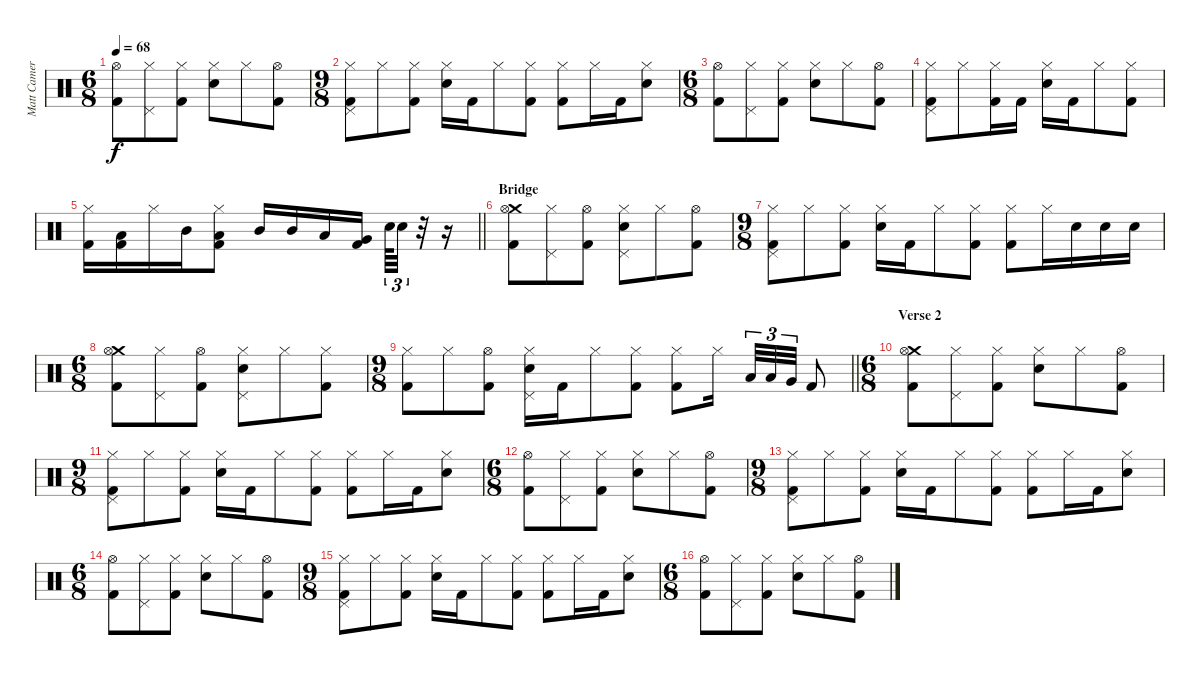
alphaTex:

\track ("Matt Cameron" "Matt Camer") {instrument percussion}
\staff {score}
\articulation defaults
\ts (6 8)
\tempo 68
\clef neutral
\ks c
("Hi-Hat (open)" "Kick (hit) 2").8{dy f} ("Pedal Hi-Hat (hit)" "Hi-Hat (closed)").8 ("Hi-Hat (closed)" "Kick (hit) 2").8 ("Hi-Hat (closed)" "Electric Snare (hit)").8 "Hi-Hat (closed)".8 ("Hi-Hat (open)" "Kick (hit) 2").8 |
\ts (9 8)
("Pedal Hi-Hat (hit)" "Hi-Hat (closed)" "Kick (hit) 2").8 "Hi-Hat (closed)".8 ("Hi-Hat (closed)" "Kick (hit) 2").8 ("Hi-Hat (closed)" "Electric Snare (hit)").16 "Kick (hit) 2".16 "Hi-Hat (closed)".8 ("Hi-Hat (closed)" "Kick (hit) 2").8 ("Hi-Hat (closed)" "Kick (hit) 2").8 "Hi-Hat (closed)".16 "Kick (hit) 2".16 ("Hi-Hat (closed)" "Electric Snare (hit)").8 |
\ts (6 8)
("Hi-Hat (open)" "Kick (hit) 2").8 ("Pedal Hi-Hat (hit)" "Hi-Hat (closed)").8 ("Hi-Hat (closed)" "Kick (hit) 2").8 ("Hi-Hat (closed)" "Electric Snare (hit)").8 "Hi-Hat (closed)".8 ("Hi-Hat (open)" "Kick (hit) 2").8 |
("Pedal Hi-Hat (hit)" "Hi-Hat (closed)" "Kick (hit) 2").8 "Hi-Hat (closed)".8 ("Hi-Hat (closed)" "Kick (hit) 2").16 "Kick (hit) 2".16 ("Hi-Hat (closed)" "Electric Snare (hit)").16 "Kick (hit) 2".16 "Hi-Hat (closed)".8 ("Hi-Hat (closed)" "Kick (hit) 2").8 |
\barLineRight lightlight
("Hi-Hat (closed)" "Kick (hit) 2").16 ("Low Tom (hit)" "Kick (hit) 2").16 "Hi-Hat (closed)".16 "Mid Tom (hit)".16 ("Hi-Hat (closed)" "Low Tom (hit)" "Kick (hit) 2").8 "Mid Tom (hit)".16 "Mid Tom (hit)".16 "Low Tom (hit)".16 ("Very Low Tom (hit)" "Kick (hit) 2").16{beam splitsecondary} "Electric Snare (hit)".64{tu (3 2)} "Electric Snare (hit)".32{tu (3 2)} r.32 r.16 |
\section ("" "Bridge")
("Crash medium (hit)" "Hi-Hat (open)" "Kick (hit) 2").8 ("Pedal Hi-Hat (hit)" "Hi-Hat (closed)").8 ("Hi-Hat (open)" "Kick (hit) 2").8 ("Pedal Hi-Hat (hit)" "Hi-Hat (closed)" "Electric Snare (hit)").8 "Hi-Hat (closed)".8 ("Hi-Hat (open)" "Kick (hit) 2").8 |
\ts (9 8)
("Pedal Hi-Hat (hit)" "Hi-Hat (closed)" "Kick (hit) 2").8 "Hi-Hat (closed)".8 ("Hi-Hat (closed)" "Kick (hit) 2").8 ("Hi-Hat (closed)" "Electric Snare (hit)").16 "Kick (hit) 2".16 "Hi-Hat (closed)".8 ("Hi-Hat (closed)" "Kick (hit) 2").8 ("Hi-Hat (closed)" "Kick (hit) 2").8 "Hi-Hat (closed)".16 "Electric Snare (hit)".16 "Electric Snare (hit)".16 "Electric Snare (hit)".16 |
\ts (6 8)
("Crash medium (hit)" "Hi-Hat (open)" "Kick (hit) 2").8 ("Pedal Hi-Hat (hit)" "Hi-Hat (closed)").8 ("Hi-Hat (open)" "Kick (hit) 2").8 ("Pedal Hi-Hat (hit)" "Hi-Hat (closed)" "Electric Snare (hit)").8 "Hi-Hat (closed)".8 ("Hi-Hat (closed)" "Kick (hit) 2").8 |
\ts (9 8)
\barLineRight lightlight
("Hi-Hat (closed)" "Kick (hit) 2").8 "Hi-Hat (closed)".8 ("Hi-Hat (open)" "Kick (hit) 2").8 ("Pedal Hi-Hat (hit)" "Hi-Hat (closed)" "Electric Snare (hit)").16 "Kick (hit) 2".16 "Hi-Hat (closed)".8 ("Hi-Hat (closed)" "Kick (hit) 2").8 ("Hi-Hat (closed)" "Kick (hit) 2").8 "Hi-Hat (closed)".16{beam splitsecondary} "Low Tom (hit)".32{tu (3 2)} "Low Tom (hit)".32{tu (3 2)} "Very Low Tom (hit)".32{tu (3 2)} "Kick (hit) 2".8 |
\ts (6 8)
\section ("" "Verse 2")
("Crash medium (hit)" "Hi-Hat (open)" "Kick (hit) 2").8 ("Pedal Hi-Hat (hit)" "Hi-Hat (closed)").8 ("Hi-Hat (closed)" "Kick (hit) 2").8 ("Hi-Hat (closed)" "Electric Snare (hit)").8 "Hi-Hat (closed)".8 ("Hi-Hat (open)" "Kick (hit) 2").8 |
\ts (9 8)
("Pedal Hi-Hat (hit)" "Hi-Hat (closed)" "Kick (hit) 2").8 "Hi-Hat (closed)".8 ("Hi-Hat (closed)" "Kick (hit) 2").8 ("Hi-Hat (closed)" "Electric Snare (hit)").16 "Kick (hit) 2".16 "Hi-Hat (closed)".8 ("Hi-Hat (closed)" "Kick (hit) 2").8 ("Hi-Hat (closed)" "Kick (hit) 2").8 "Hi-Hat (closed)".16 "Kick (hit) 2".16 ("Hi-Hat (closed)" "Electric Snare (hit)").8 |
\ts (6 8)
("Hi-Hat (open)" "Kick (hit) 2").8 ("Pedal Hi-Hat (hit)" "Hi-Hat (closed)").8 ("Hi-Hat (closed)" "Kick (hit) 2").8 ("Hi-Hat (closed)" "Electric Snare (hit)").8 "Hi-Hat (closed)".8 ("Hi-Hat (open)" "Kick (hit) 2").8 |
\ts (9 8)
("Pedal Hi-Hat (hit)" "Hi-Hat (closed)" "Kick (hit) 2").8 "Hi-Hat (closed)".8 ("Hi-Hat (closed)" "Kick (hit) 2").8 ("Hi-Hat (closed)" "Electric Snare (hit)").16 "Kick (hit) 2".16 "Hi-Hat (closed)".8 ("Hi-Hat (closed)" "Kick (hit) 2").8 ("Hi-Hat (closed)" "Kick (hit) 2").8 "Hi-Hat (closed)".16 "Kick (hit) 2".16 ("Hi-Hat (closed)" "Electric Snare (hit)").8 |
\ts (6 8)
("Hi-Hat (open)" "Kick (hit) 2").8 ("Pedal Hi-Hat (hit)" "Hi-Hat (closed)").8 ("Hi-Hat (closed)" "Kick (hit) 2").8 ("Hi-Hat (closed)" "Electric Snare (hit)").8 "Hi-Hat (closed)".8 ("Hi-Hat (open)" "Kick (hit) 2").8 |
\ts (9 8)
("Pedal Hi-Hat (hit)" "Hi-Hat (closed)" "Kick (hit) 2").8 "Hi-Hat (closed)".8 ("Hi-Hat (closed)" "Kick (hit) 2").8 ("Hi-Hat (closed)" "Electric Snare (hit)").16 "Kick (hit) 2".16 "Hi-Hat (closed)".8 ("Hi-Hat (closed)" "Kick (hit) 2").8 ("Hi-Hat (closed)" "Kick (hit) 2").8 "Hi-Hat (closed)".16 "Kick (hit) 2".16 ("Hi-Hat (closed)" "Electric Snare (hit)").8 |
\ts (6 8)
("Hi-Hat (open)" "Kick (hit) 2").8 ("Pedal Hi-Hat (hit)" "Hi-Hat (closed)").8 ("Hi-Hat (closed)" "Kick (hit) 2").8 ("Hi-Hat (closed)" "Electric Snare (hit)").8 "Hi-Hat (closed)".8 ("Hi-Hat (open)" "Kick (hit) 2").8
